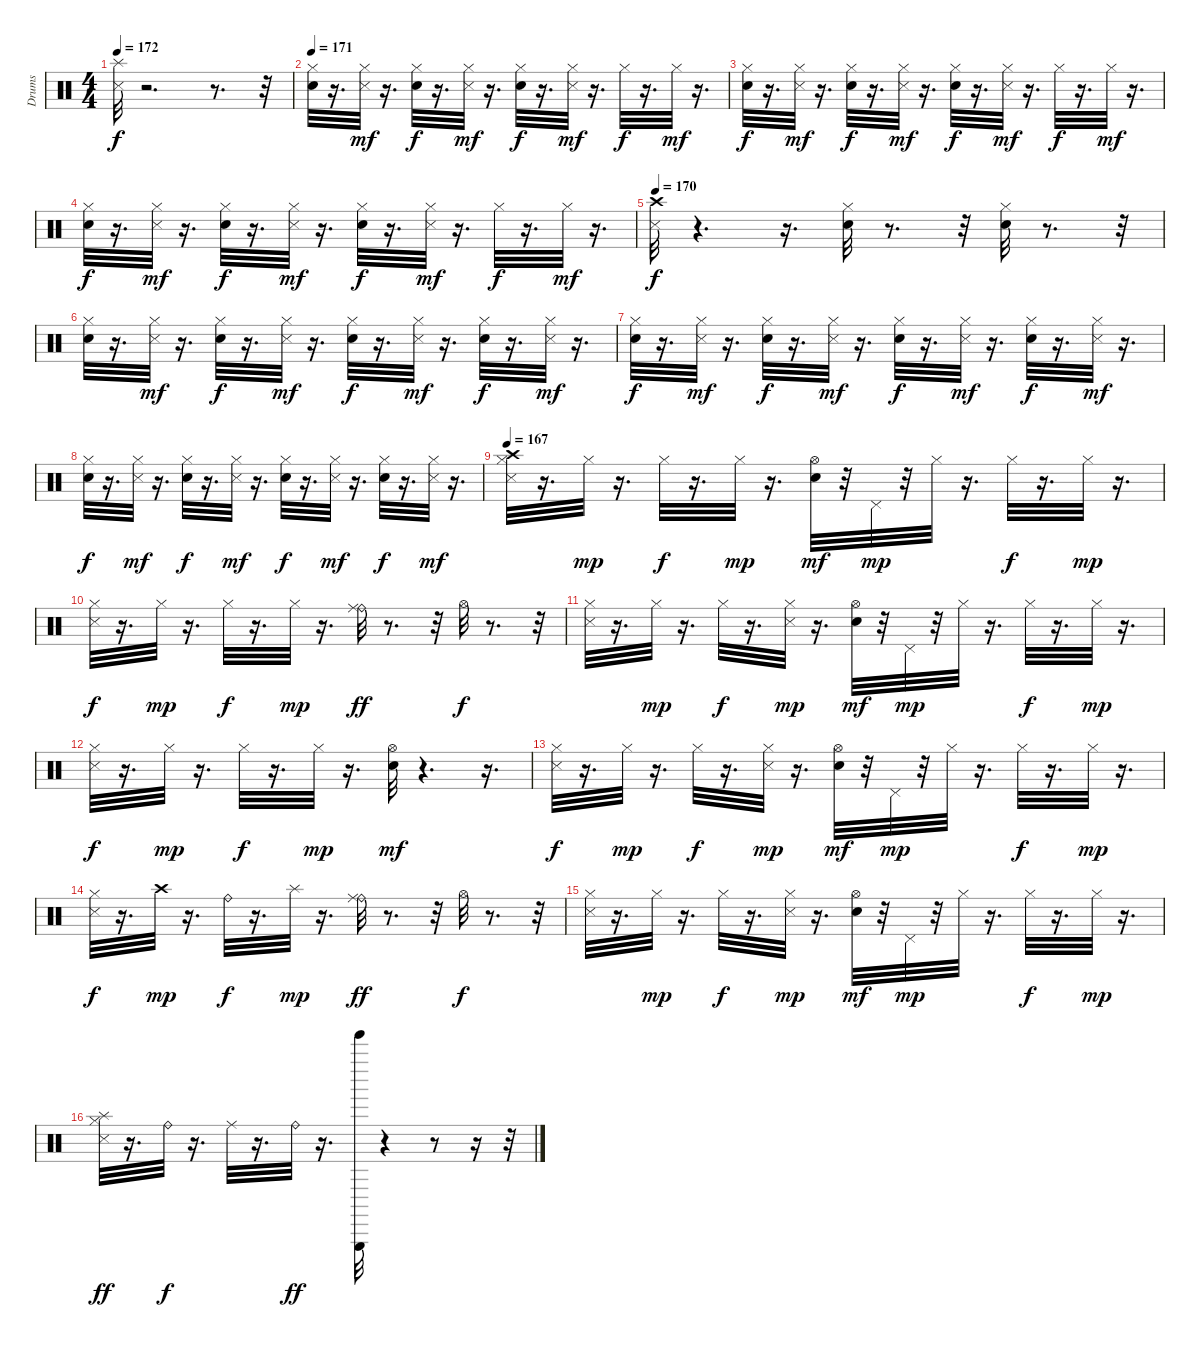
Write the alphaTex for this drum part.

\track ("Drums" "Drums") {instrument percussion}
\staff {score}
\articulation defaults
\ts (4 4)
\tempo 172
\clef neutral
\ks c
("Splash (hit)" "Metronome (hit)").32{dy f} r.2{d} r.8{d} r.32 |
\tempo 171
("Snare (hit) 2" "Hi-Hat (closed)").32 r.16{d} ("Hi-Hat (closed)" "Metronome (hit)").32{dy mf} r.16{d} ("Hi-Hat (closed)" "Snare (hit) 2").32{dy f} r.16{d} ("Hi-Hat (closed)" "Metronome (hit)").32{dy mf} r.16{d} ("Hi-Hat (closed)" "Snare (hit) 2").32{dy f} r.16{d} ("Hi-Hat (closed)" "Metronome (hit)").32{dy mf} r.16{d} "Hi-Hat (closed)".32{dy f} r.16{d} "Hi-Hat (closed)".32{dy mf} r.16{d} |
("Snare (hit) 2" "Hi-Hat (closed)").32{dy f} r.16{d} ("Hi-Hat (closed)" "Metronome (hit)").32{dy mf} r.16{d} ("Hi-Hat (closed)" "Snare (hit) 2").32{dy f} r.16{d} ("Hi-Hat (closed)" "Metronome (hit)").32{dy mf} r.16{d} ("Hi-Hat (closed)" "Snare (hit) 2").32{dy f} r.16{d} ("Hi-Hat (closed)" "Metronome (hit)").32{dy mf} r.16{d} "Hi-Hat (closed)".32{dy f} r.16{d} "Hi-Hat (closed)".32{dy mf} r.16{d} |
("Snare (hit) 2" "Hi-Hat (closed)").32{dy f} r.16{d} ("Hi-Hat (closed)" "Metronome (hit)").32{dy mf} r.16{d} ("Hi-Hat (closed)" "Snare (hit) 2").32{dy f} r.16{d} ("Hi-Hat (closed)" "Metronome (hit)").32{dy mf} r.16{d} ("Hi-Hat (closed)" "Snare (hit) 2").32{dy f} r.16{d} ("Hi-Hat (closed)" "Metronome (hit)").32{dy mf} r.16{d} "Hi-Hat (closed)".32{dy f} r.16{d} "Hi-Hat (closed)".32{dy mf} r.16{d} |
\tempo 170
("Crash high (hit)" "Metronome (hit)").32{dy f} r.4{d} r.16{d} ("Hi-Hat (closed)" "Snare (hit) 2").32 r.8{d} r.32 ("Hi-Hat (closed)" "Snare (hit) 2").32 r.8{d} r.32 |
("Snare (hit) 2" "Hi-Hat (closed)").32 r.16{d} ("Hi-Hat (closed)" "Metronome (hit)").32{dy mf} r.16{d} ("Hi-Hat (closed)" "Snare (hit) 2").32{dy f} r.16{d} ("Hi-Hat (closed)" "Metronome (hit)").32{dy mf} r.16{d} ("Hi-Hat (closed)" "Snare (hit) 2").32{dy f} r.16{d} ("Hi-Hat (closed)" "Metronome (hit)").32{dy mf} r.16{d} ("Snare (hit) 2" "Hi-Hat (closed)").32{dy f} r.16{d} ("Metronome (hit)" "Hi-Hat (closed)").32{dy mf} r.16{d} |
("Snare (hit) 2" "Hi-Hat (closed)").32{dy f} r.16{d} ("Hi-Hat (closed)" "Metronome (hit)").32{dy mf} r.16{d} ("Hi-Hat (closed)" "Snare (hit) 2").32{dy f} r.16{d} ("Hi-Hat (closed)" "Metronome (hit)").32{dy mf} r.16{d} ("Hi-Hat (closed)" "Snare (hit) 2").32{dy f} r.16{d} ("Hi-Hat (closed)" "Metronome (hit)").32{dy mf} r.16{d} ("Snare (hit) 2" "Hi-Hat (closed)").32{dy f} r.16{d} ("Metronome (hit)" "Hi-Hat (closed)").32{dy mf} r.16{d} |
("Snare (hit) 2" "Hi-Hat (closed)").32{dy f} r.16{d} ("Hi-Hat (closed)" "Metronome (hit)").32{dy mf} r.16{d} ("Hi-Hat (closed)" "Snare (hit) 2").32{dy f} r.16{d} ("Hi-Hat (closed)" "Metronome (hit)").32{dy mf} r.16{d} ("Hi-Hat (closed)" "Snare (hit) 2").32{dy f} r.16{d} ("Hi-Hat (closed)" "Metronome (hit)").32{dy mf} r.16{d} ("Snare (hit) 2" "Hi-Hat (closed)").32{dy f} r.16{d} ("Metronome (hit)" "Hi-Hat (closed)").32{dy mf} r.16{d} |
\tempo 167
("Crash high (hit)" "Metronome (hit)" "Hi-Hat (closed)").32 r.16{d} "Hi-Hat (closed)".32{dy mp} r.16{d} "Hi-Hat (closed)".32{dy f} r.16{d} "Hi-Hat (closed)".32{dy mp} r.16{d} ("Snare (hit) 2" "Hi-Hat (open)").32{dy mf} r.32 "Pedal Hi-Hat (hit)".32{dy mp} r.32 "Hi-Hat (closed)".32 r.16{d} "Hi-Hat (closed)".32{dy f} r.16{d} "Hi-Hat (closed)".32{dy mp} r.16{d} |
("Metronome (hit)" "Hi-Hat (closed)").32{dy f} r.16{d} "Hi-Hat (closed)".32{dy mp} r.16{d} "Hi-Hat (closed)".32{dy f} r.16{d} "Hi-Hat (closed)".32{dy mp} r.16{d} ("Ride (bell)" "Ride (middle)").32{dy ff} r.8{d} r.32 "Hi-Hat (open)".32{dy f} r.8{d} r.32 |
("Metronome (hit)" "Hi-Hat (closed)").32 r.16{d} "Hi-Hat (closed)".32{dy mp} r.16{d} "Hi-Hat (closed)".32{dy f} r.16{d} ("Metronome (hit)" "Hi-Hat (closed)").32{dy mp} r.16{d} ("Snare (hit) 2" "Hi-Hat (open)").32{dy mf} r.32 "Pedal Hi-Hat (hit)".32{dy mp} r.32 "Hi-Hat (closed)".32 r.16{d} "Hi-Hat (closed)".32{dy f} r.16{d} "Hi-Hat (closed)".32{dy mp} r.16{d} |
("Metronome (hit)" "Hi-Hat (closed)").32{dy f} r.16{d} "Hi-Hat (closed)".32{dy mp} r.16{d} "Hi-Hat (closed)".32{dy f} r.16{d} "Hi-Hat (closed)".32{dy mp} r.16{d} ("Snare (hit) 2" "Hi-Hat (open)").32{dy mf} r.4{d} r.16{d} |
("Metronome (hit)" "Hi-Hat (closed)").32{dy f} r.16{d} "Hi-Hat (closed)".32{dy mp} r.16{d} "Hi-Hat (closed)".32{dy f} r.16{d} ("Metronome (hit)" "Hi-Hat (closed)").32{dy mp} r.16{d} ("Snare (hit) 2" "Hi-Hat (open)").32{dy mf} r.32 "Pedal Hi-Hat (hit)".32{dy mp} r.32 "Hi-Hat (closed)".32 r.16{d} "Hi-Hat (closed)".32{dy f} r.16{d} "Hi-Hat (closed)".32{dy mp} r.16{d} |
("Metronome (hit)" "Hi-Hat (closed)").32{dy f} r.16{d} "Crash high (hit)".32{dy mp} r.16{d} "Ride (bell)".32{dy f} r.16{d} "Splash (hit)".32{dy mp} r.16{d} ("Ride (bell)" "Ride (middle)").32{dy ff} r.8{d} r.32 "Hi-Hat (open)".32{dy f} r.8{d} r.32 |
("Metronome (hit)" "Hi-Hat (closed)").32 r.16{d} "Hi-Hat (closed)".32{dy mp} r.16{d} "Hi-Hat (closed)".32{dy f} r.16{d} ("Metronome (hit)" "Hi-Hat (closed)").32{dy mp} r.16{d} ("Snare (hit) 2" "Hi-Hat (open)").32{dy mf} r.32 "Pedal Hi-Hat (hit)".32{dy mp} r.32 "Hi-Hat (closed)".32 r.16{d} "Hi-Hat (closed)".32{dy f} r.16{d} "Hi-Hat (closed)".32{dy mp} r.16{d} |
("Hi-Hat (closed)" "Splash (hit)" "Metronome (hit)").32{dy ff} r.16{d} "Ride (bell)".32{dy f} r.16{d} "Ride (middle)".32 r.16{d} "Ride (bell)".32{dy ff} r.16{d} ("Triangle (hit)" "Tinkle Bell (hit)").32 r.4 r.8 r.16 r.32
